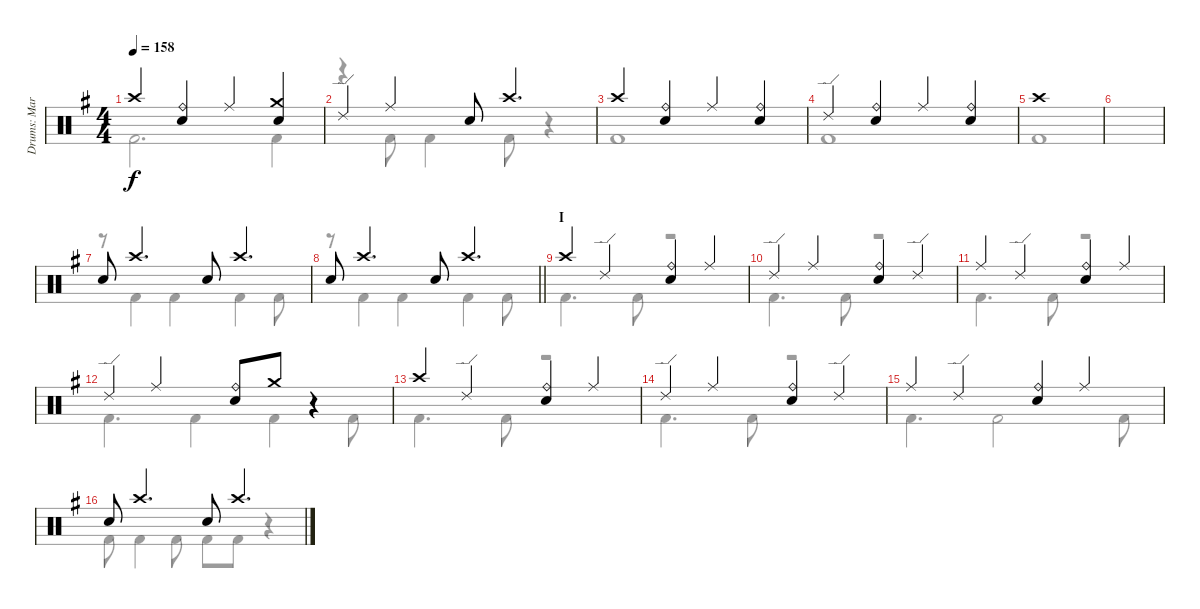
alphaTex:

\track ("Drums: Mark" "Drums: Mar") {instrument percussion}
\staff {score}
\articulation defaults
\voice
\ts (4 4)
\tempo 158
\clef neutral
\ks g "Crash high (hit)".4{dy f}
("Ride (bell)" "Snare (hit) 2").4 "Ride (middle)".4 ("Crash medium (hit)" "Snare (hit) 2").4 |
"Ride (edge) 2".4 "Ride (middle)".4 "Snare (hit) 2".8 "Crash high (hit)".4{d} |
"Crash high (hit)".4 ("Ride (bell)" "Snare (hit) 2").4 "Ride (middle)".4 ("Ride (bell)" "Snare (hit) 2").4 |
"Ride (edge) 2".4 ("Ride (bell)" "Snare (hit) 2").4 "Ride (middle)".4 ("Ride (bell)" "Snare (hit) 2").4 |
"Crash high (hit)".1 |
|
"Snare (hit) 2".8 "Crash high (hit)".4{d} "Snare (hit) 2".8 "Crash high (hit)".4{d} |
\barLineRight lightlight "Snare (hit) 2".8 "Crash high (hit)".4{d} "Snare (hit) 2".8 "Crash high (hit)".4{d}
|
\section ("" "I")
"Crash high (hit)".4 "Ride (edge) 2".4 ("Ride (bell)" "Snare (hit) 2").4 "Ride (middle)".4 |
"Ride (edge) 2".4 "Ride (middle)".4 ("Ride (bell)" "Snare (hit) 2").4 "Ride (edge) 2".4 |
"Ride (middle)".4 "Ride (edge) 2".4 ("Ride (bell)" "Snare (hit) 2").4 "Ride (middle)".4 |
"Ride (edge) 2".4 "Ride (middle)".4 ("Ride (bell)" "Snare (hit) 2").8 "Crash medium (hit)".8 r.4 |
"Crash high (hit)".4 "Ride (edge) 2".4 ("Ride (bell)" "Snare (hit) 2").4 "Ride (middle)".4 |
"Ride (edge) 2".4 "Ride (middle)".4 ("Ride (bell)" "Snare (hit) 2").4 "Ride (edge) 2".4 |
"Ride (middle)".4 "Ride (edge) 2".4 ("Ride (bell)" "Snare (hit) 2").4 "Ride (middle)".4 |
"Snare (hit) 2".8 "Crash high (hit)".4{d} "Snare (hit) 2".8 "Crash high (hit)".4{d}
\voice
\clef neutral
\ottava regular
\simile none
\ks g "Kick (hit) 2".2{d dy f} "Kick (hit) 2".4
|
r.4 "Kick (hit) 2".8 "Kick (hit) 2".4 "Kick (hit) 2".8 r.4 |
"Kick (hit) 2".1 |
"Kick (hit) 2".1 |
"Kick (hit) 2".1 |
|
r.8 "Kick (hit) 2".4 "Kick (hit) 2".4 "Kick (hit) 2".4 "Kick (hit) 2".8 |
\barLineRight lightlight
r.8 "Kick (hit) 2".4 "Kick (hit) 2".4 "Kick (hit) 2".4 "Kick (hit) 2".8 |
"Kick (hit) 2".4{d} "Kick (hit) 2".8 r.2 |
"Kick (hit) 2".4{d} "Kick (hit) 2".8 r.2 |
"Kick (hit) 2".4{d} "Kick (hit) 2".8 r.2 |
"Kick (hit) 2".4{d} "Kick (hit) 2".4 "Kick (hit) 2".4 "Kick (hit) 2".8 |
"Kick (hit) 2".4{d} "Kick (hit) 2".8 r.2 |
"Kick (hit) 2".4{d} "Kick (hit) 2".8 r.2 |
"Kick (hit) 2".4{d} "Kick (hit) 2".2 "Kick (hit) 2".8 |
"Kick (hit) 2".8 "Kick (hit) 2".4 "Kick (hit) 2".8 "Kick (hit) 2".8 "Kick (hit) 2".8 r.4
